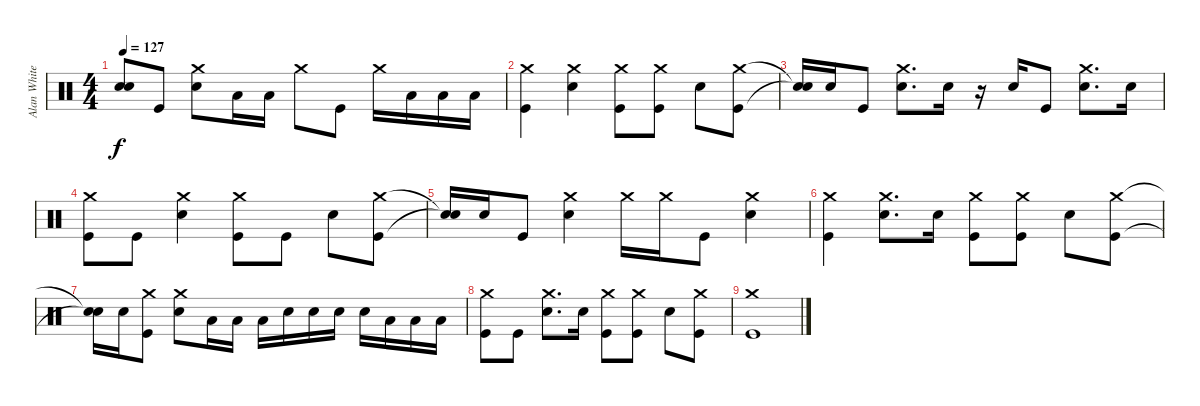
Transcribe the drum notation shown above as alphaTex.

\track ("Alan White (Percussion)" "Alan White") {instrument percussion}
\staff {score}
\articulation defaults
\ts (4 4)
\tempo 127
\clef neutral
\ks c
("Snare (hit)"{t} "Snare (hit)"{t}).8{dy f} "Kick (hit)".8 ("Crash medium (hit)" "Snare (hit) 2").8 "Low Tom (hit)".16 "Low Tom (hit)".16 "Crash medium (hit)".8 "Kick (hit)".8 "Crash medium (hit)".16 "Low Tom (hit)".16 "Low Tom (hit)".16 "Low Tom (hit)".16 |
("Crash medium (hit)" "Kick (hit)").4 ("Crash medium (hit)" "Snare (hit) 2").4 ("Crash medium (hit)" "Kick (hit)").8 ("Crash medium (hit)" "Kick (hit)").8 "Snare (hit) 2".8 ("Crash medium (hit)" "Kick (hit)").8 |
("Snare (hit)"{t} "Snare (hit)"{t}).16 "Snare (hit) 2".16 "Kick (hit)".8 ("Crash medium (hit)" "Snare (hit) 2").8{d} "Snare (hit) 2".16 r.16 "Snare (hit) 2".16 "Kick (hit)".8 ("Crash medium (hit)" "Snare (hit) 2").8{d} "Snare (hit) 2".16 |
("Crash medium (hit)" "Kick (hit)").8 "Kick (hit)".8 ("Crash medium (hit)" "Snare (hit) 2").4 ("Crash medium (hit)" "Kick (hit)").8 "Kick (hit)".8 "Snare (hit) 2".8 ("Crash medium (hit)" "Kick (hit)").8 |
("Snare (hit)"{t} "Snare (hit)"{t}).16 "Snare (hit) 2".16 "Kick (hit)".8 ("Crash medium (hit)" "Snare (hit) 2").4 "Crash medium (hit)".16 "Crash medium (hit)".16 "Kick (hit)".8 ("Crash medium (hit)" "Snare (hit) 2").4 |
("Crash medium (hit)" "Kick (hit)").4 ("Crash medium (hit)" "Snare (hit) 2").8{d} "Snare (hit) 2".16 ("Crash medium (hit)" "Kick (hit)").8 ("Crash medium (hit)" "Kick (hit)").8 "Snare (hit) 2".8 ("Crash medium (hit)" "Kick (hit)").8 |
("Snare (hit)"{t} "Snare (hit)"{t}).16 "Snare (hit) 2".16 ("Crash medium (hit)" "Kick (hit)").8 ("Crash medium (hit)" "Snare (hit) 2").8 "Low Tom (hit)".16 "Low Tom (hit)".16 "Low Tom (hit)".16 "Snare (hit) 2".16 "Snare (hit) 2".16 "Snare (hit) 2".16 "Snare (hit) 2".16 "Low Tom (hit)".16 "Low Tom (hit)".16 "Low Tom (hit)".16 |
("Crash medium (hit)" "Kick (hit)").8 "Kick (hit)".8 ("Crash medium (hit)" "Snare (hit) 2").8{d} "Snare (hit) 2".16 ("Crash medium (hit)" "Kick (hit)").8 ("Crash medium (hit)" "Kick (hit)").8 "Snare (hit) 2".8 ("Crash medium (hit)" "Kick (hit)").8 |
("Crash medium (hit)" "Kick (hit)").1
